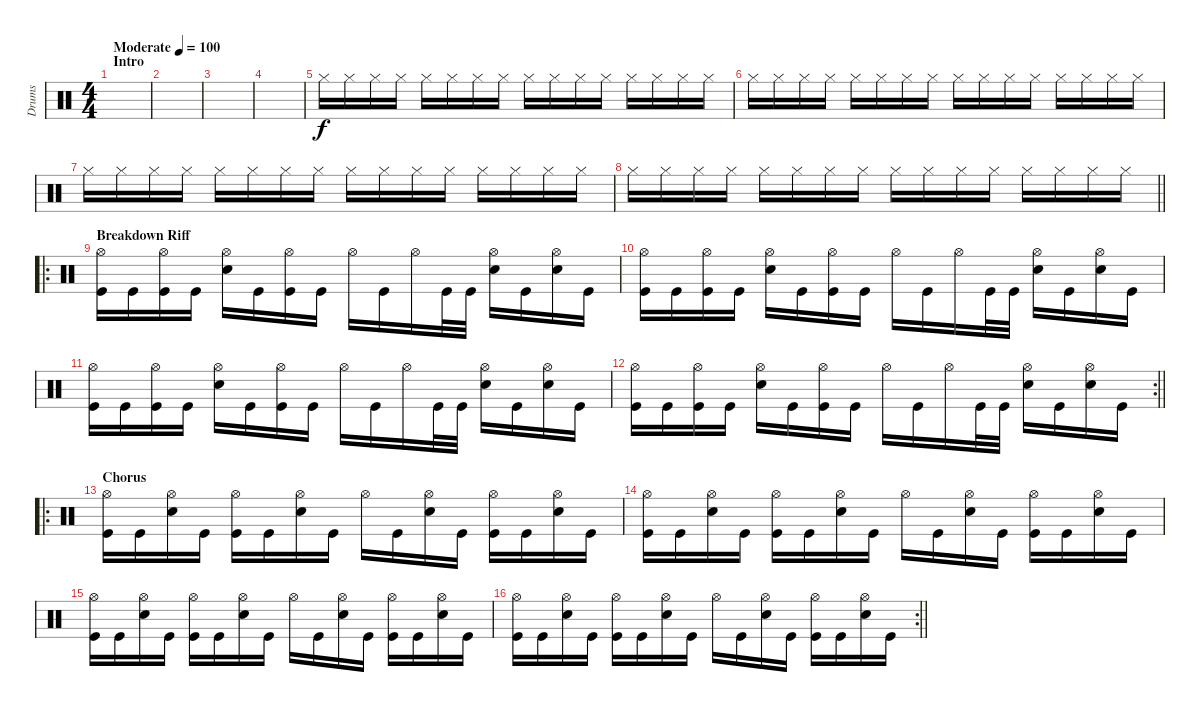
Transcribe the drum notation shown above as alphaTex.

\track ("Drums" "Drums") {instrument percussion}
\staff {score}
\articulation defaults
\ts (4 4)
\section ("" "Intro")
\tempo (100 "Moderate")
\clef neutral
\ks c
|
|
|
|
"Hi-Hat (closed)".16 "Hi-Hat (closed)".16 "Hi-Hat (closed)".16 "Hi-Hat (closed)".16 "Hi-Hat (closed)".16 "Hi-Hat (closed)".16 "Hi-Hat (closed)".16 "Hi-Hat (closed)".16 "Hi-Hat (closed)".16 "Hi-Hat (closed)".16 "Hi-Hat (closed)".16 "Hi-Hat (closed)".16 "Hi-Hat (closed)".16 "Hi-Hat (closed)".16 "Hi-Hat (closed)".16 "Hi-Hat (closed)".16 |
"Hi-Hat (closed)".16 "Hi-Hat (closed)".16 "Hi-Hat (closed)".16 "Hi-Hat (closed)".16 "Hi-Hat (closed)".16 "Hi-Hat (closed)".16 "Hi-Hat (closed)".16 "Hi-Hat (closed)".16 "Hi-Hat (closed)".16 "Hi-Hat (closed)".16 "Hi-Hat (closed)".16 "Hi-Hat (closed)".16 "Hi-Hat (closed)".16 "Hi-Hat (closed)".16 "Hi-Hat (closed)".16 "Hi-Hat (closed)".16 |
"Hi-Hat (closed)".16 "Hi-Hat (closed)".16 "Hi-Hat (closed)".16 "Hi-Hat (closed)".16 "Hi-Hat (closed)".16 "Hi-Hat (closed)".16 "Hi-Hat (closed)".16 "Hi-Hat (closed)".16 "Hi-Hat (closed)".16 "Hi-Hat (closed)".16 "Hi-Hat (closed)".16 "Hi-Hat (closed)".16 "Hi-Hat (closed)".16 "Hi-Hat (closed)".16 "Hi-Hat (closed)".16 "Hi-Hat (closed)".16 |
\barLineRight lightlight "Hi-Hat (closed)".16 "Hi-Hat (closed)".16 "Hi-Hat (closed)".16 "Hi-Hat (closed)".16 "Hi-Hat (closed)".16 "Hi-Hat (closed)".16 "Hi-Hat (closed)".16 "Hi-Hat (closed)".16 "Hi-Hat (closed)".16 "Hi-Hat (closed)".16 "Hi-Hat (closed)".16 "Hi-Hat (closed)".16 "Hi-Hat (closed)".16 "Hi-Hat (closed)".16 "Hi-Hat (closed)".16 "Hi-Hat (closed)".16
|
\ro
\section ("" "Breakdown Riff")
("Hi-Hat (open)" "Kick (hit)").16 "Kick (hit)".16 ("Hi-Hat (open)" "Kick (hit)").16 "Kick (hit)".16 ("Hi-Hat (open)" "Snare (hit) 2").16 "Kick (hit)".16 ("Hi-Hat (open)" "Kick (hit)").16 "Kick (hit)".16 "Hi-Hat (open)".16 "Kick (hit)".16 "Hi-Hat (open)".16 "Kick (hit)".32 "Kick (hit)".32 ("Hi-Hat (open)" "Snare (hit) 2").16 "Kick (hit)".16 ("Hi-Hat (open)" "Snare (hit) 2").16 "Kick (hit)".16 |
("Hi-Hat (open)" "Kick (hit)").16 "Kick (hit)".16 ("Hi-Hat (open)" "Kick (hit)").16 "Kick (hit)".16 ("Hi-Hat (open)" "Snare (hit) 2").16 "Kick (hit)".16 ("Hi-Hat (open)" "Kick (hit)").16 "Kick (hit)".16 "Hi-Hat (open)".16 "Kick (hit)".16 "Hi-Hat (open)".16 "Kick (hit)".32 "Kick (hit)".32 ("Hi-Hat (open)" "Snare (hit) 2").16 "Kick (hit)".16 ("Hi-Hat (open)" "Snare (hit) 2").16 "Kick (hit)".16 |
("Hi-Hat (open)" "Kick (hit)").16 "Kick (hit)".16 ("Hi-Hat (open)" "Kick (hit)").16 "Kick (hit)".16 ("Hi-Hat (open)" "Snare (hit) 2").16 "Kick (hit)".16 ("Hi-Hat (open)" "Kick (hit)").16 "Kick (hit)".16 "Hi-Hat (open)".16 "Kick (hit)".16 "Hi-Hat (open)".16 "Kick (hit)".32 "Kick (hit)".32 ("Hi-Hat (open)" "Snare (hit) 2").16 "Kick (hit)".16 ("Hi-Hat (open)" "Snare (hit) 2").16 "Kick (hit)".16 |
\rc 2
\barLineRight lightlight
("Hi-Hat (open)" "Kick (hit)").16 "Kick (hit)".16 ("Hi-Hat (open)" "Kick (hit)").16 "Kick (hit)".16 ("Hi-Hat (open)" "Snare (hit) 2").16 "Kick (hit)".16 ("Hi-Hat (open)" "Kick (hit)").16 "Kick (hit)".16 "Hi-Hat (open)".16 "Kick (hit)".16 "Hi-Hat (open)".16 "Kick (hit)".32 "Kick (hit)".32 ("Hi-Hat (open)" "Snare (hit) 2").16 "Kick (hit)".16 ("Hi-Hat (open)" "Snare (hit) 2").16 "Kick (hit)".16 |
\ro
\section ("" "Chorus")
("Hi-Hat (open)" "Kick (hit)").16 "Kick (hit)".16 ("Hi-Hat (open)" "Snare (hit) 2").16 "Kick (hit)".16 ("Hi-Hat (open)" "Kick (hit)").16 "Kick (hit)".16 ("Hi-Hat (open)" "Snare (hit) 2").16 "Kick (hit)".16 "Hi-Hat (open)".16 "Kick (hit)".16 ("Hi-Hat (open)" "Snare (hit) 2").16 "Kick (hit)".16 ("Hi-Hat (open)" "Kick (hit)").16 "Kick (hit)".16 ("Hi-Hat (open)" "Snare (hit) 2").16 "Kick (hit)".16 |
("Hi-Hat (open)" "Kick (hit)").16 "Kick (hit)".16 ("Hi-Hat (open)" "Snare (hit) 2").16 "Kick (hit)".16 ("Hi-Hat (open)" "Kick (hit)").16 "Kick (hit)".16 ("Hi-Hat (open)" "Snare (hit) 2").16 "Kick (hit)".16 "Hi-Hat (open)".16 "Kick (hit)".16 ("Hi-Hat (open)" "Snare (hit) 2").16 "Kick (hit)".16 ("Hi-Hat (open)" "Kick (hit)").16 "Kick (hit)".16 ("Hi-Hat (open)" "Snare (hit) 2").16 "Kick (hit)".16 |
("Hi-Hat (open)" "Kick (hit)").16 "Kick (hit)".16 ("Hi-Hat (open)" "Snare (hit) 2").16 "Kick (hit)".16 ("Hi-Hat (open)" "Kick (hit)").16 "Kick (hit)".16 ("Hi-Hat (open)" "Snare (hit) 2").16 "Kick (hit)".16 "Hi-Hat (open)".16 "Kick (hit)".16 ("Hi-Hat (open)" "Snare (hit) 2").16 "Kick (hit)".16 ("Hi-Hat (open)" "Kick (hit)").16 "Kick (hit)".16 ("Hi-Hat (open)" "Snare (hit) 2").16 "Kick (hit)".16 |
\rc 2
\barLineRight lightlight
("Hi-Hat (open)" "Kick (hit)").16 "Kick (hit)".16 ("Hi-Hat (open)" "Snare (hit) 2").16 "Kick (hit)".16 ("Hi-Hat (open)" "Kick (hit)").16 "Kick (hit)".16 ("Hi-Hat (open)" "Snare (hit) 2").16 "Kick (hit)".16 "Hi-Hat (open)".16 "Kick (hit)".16 ("Hi-Hat (open)" "Snare (hit) 2").16 "Kick (hit)".16 ("Hi-Hat (open)" "Kick (hit)").16 "Kick (hit)".16 ("Hi-Hat (open)" "Snare (hit) 2").16 "Kick (hit)".16
